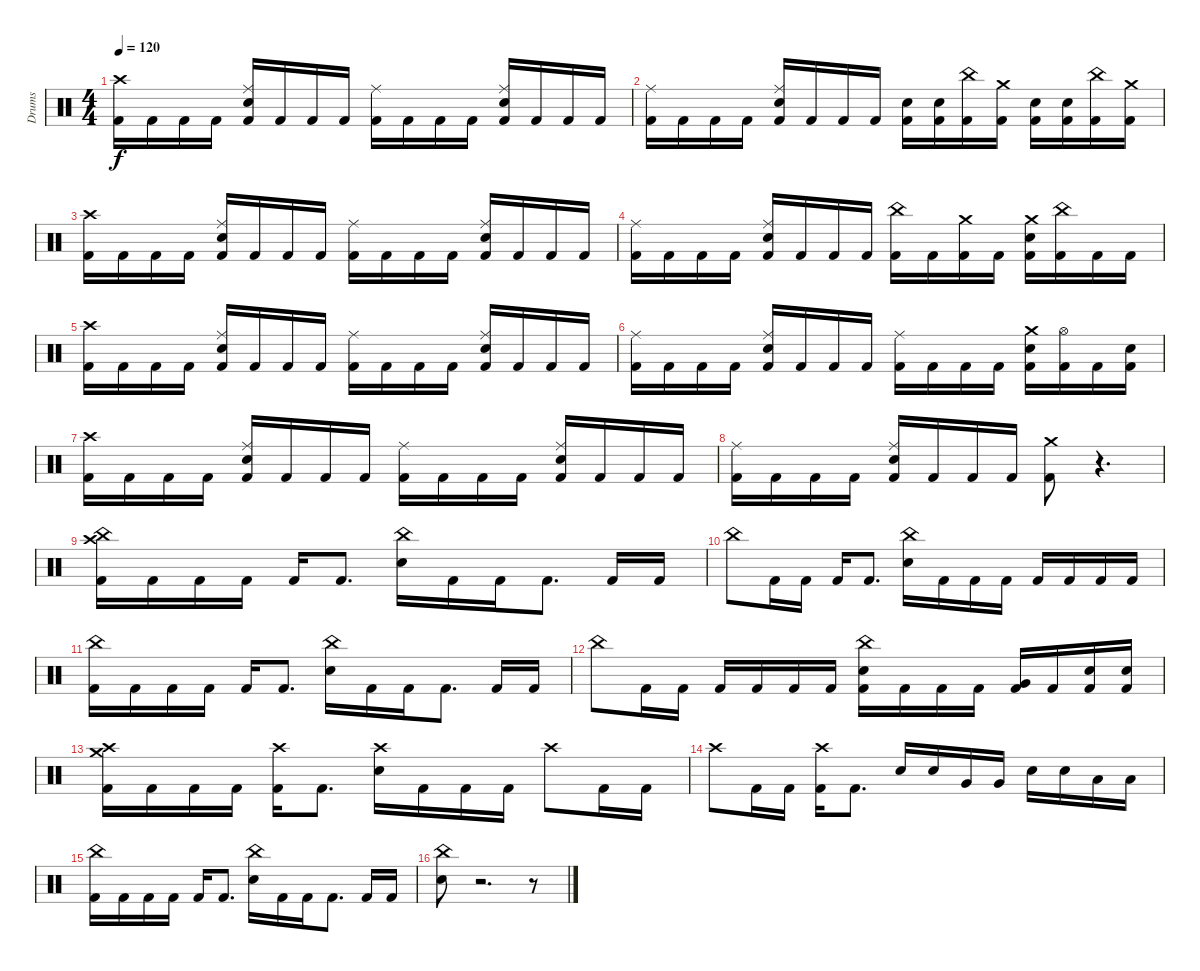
\track ("Drums" "Drums") {instrument percussion}
\staff {score}
\articulation defaults
\ts (4 4)
\tempo 120
\clef neutral
\ks c
("Crash high (hit)" "Kick (hit) 2").16{dy f} "Kick (hit) 2".16 "Kick (hit) 2".16 "Kick (hit) 2".16 ("Ride (middle)" "Electric Snare (hit)" "Kick (hit) 2").16 "Kick (hit) 2".16 "Kick (hit) 2".16 "Kick (hit) 2".16 ("Ride (middle)" "Kick (hit) 2").16 "Kick (hit) 2".16 "Kick (hit) 2".16 "Kick (hit) 2".16 ("Ride (middle)" "Electric Snare (hit)" "Kick (hit) 2").16 "Kick (hit) 2".16 "Kick (hit) 2".16 "Kick (hit) 2".16 |
("Ride (middle)" "Kick (hit) 2").16 "Kick (hit) 2".16 "Kick (hit) 2".16 "Kick (hit) 2".16 ("Ride (middle)" "Electric Snare (hit)" "Kick (hit) 2").16 "Kick (hit) 2".16 "Kick (hit) 2".16 "Kick (hit) 2".16 ("Electric Snare (hit)" "Kick (hit) 2").16 ("Electric Snare (hit)" "Kick (hit) 2").16 ("China (hit)" "Kick (hit) 2").16 ("Crash medium (hit)" "Kick (hit) 2").16 ("Electric Snare (hit)" "Kick (hit) 2").16 ("Electric Snare (hit)" "Kick (hit) 2").16 ("China (hit)" "Kick (hit) 2").16 ("Crash medium (hit)" "Kick (hit) 2").16 |
("Crash high (hit)" "Kick (hit) 2").16 "Kick (hit) 2".16 "Kick (hit) 2".16 "Kick (hit) 2".16 ("Ride (middle)" "Electric Snare (hit)" "Kick (hit) 2").16 "Kick (hit) 2".16 "Kick (hit) 2".16 "Kick (hit) 2".16 ("Ride (middle)" "Kick (hit) 2").16 "Kick (hit) 2".16 "Kick (hit) 2".16 "Kick (hit) 2".16 ("Ride (middle)" "Electric Snare (hit)" "Kick (hit) 2").16 "Kick (hit) 2".16 "Kick (hit) 2".16 "Kick (hit) 2".16 |
("Ride (middle)" "Kick (hit) 2").16 "Kick (hit) 2".16 "Kick (hit) 2".16 "Kick (hit) 2".16 ("Ride (middle)" "Electric Snare (hit)" "Kick (hit) 2").16 "Kick (hit) 2".16 "Kick (hit) 2".16 "Kick (hit) 2".16 ("China (hit)" "Kick (hit) 2").16 "Kick (hit) 2".16 ("Crash medium (hit)" "Kick (hit) 2").16 "Kick (hit) 2".16 ("Crash medium (hit)" "Electric Snare (hit)" "Kick (hit) 2").16 ("China (hit)" "Kick (hit) 2").16 "Kick (hit) 2".16 "Kick (hit) 2".16 |
("Crash high (hit)" "Kick (hit) 2").16 "Kick (hit) 2".16 "Kick (hit) 2".16 "Kick (hit) 2".16 ("Ride (middle)" "Electric Snare (hit)" "Kick (hit) 2").16 "Kick (hit) 2".16 "Kick (hit) 2".16 "Kick (hit) 2".16 ("Ride (middle)" "Kick (hit) 2").16 "Kick (hit) 2".16 "Kick (hit) 2".16 "Kick (hit) 2".16 ("Ride (middle)" "Electric Snare (hit)" "Kick (hit) 2").16 "Kick (hit) 2".16 "Kick (hit) 2".16 "Kick (hit) 2".16 |
("Ride (middle)" "Kick (hit) 2").16 "Kick (hit) 2".16 "Kick (hit) 2".16 "Kick (hit) 2".16 ("Ride (middle)" "Electric Snare (hit)" "Kick (hit) 2").16 "Kick (hit) 2".16 "Kick (hit) 2".16 "Kick (hit) 2".16 ("Ride (middle)" "Kick (hit) 2").16 "Kick (hit) 2".16 "Kick (hit) 2".16 "Kick (hit) 2".16 ("Crash medium (hit)" "Electric Snare (hit)" "Kick (hit) 2").16 ("Hi-Hat (open)" "Kick (hit) 2").16 "Kick (hit) 2".16 ("Electric Snare (hit)" "Kick (hit) 2").16 |
("Crash high (hit)" "Kick (hit) 2").16 "Kick (hit) 2".16 "Kick (hit) 2".16 "Kick (hit) 2".16 ("Ride (middle)" "Electric Snare (hit)" "Kick (hit) 2").16 "Kick (hit) 2".16 "Kick (hit) 2".16 "Kick (hit) 2".16 ("Ride (middle)" "Kick (hit) 2").16 "Kick (hit) 2".16 "Kick (hit) 2".16 "Kick (hit) 2".16 ("Ride (middle)" "Electric Snare (hit)" "Kick (hit) 2").16 "Kick (hit) 2".16 "Kick (hit) 2".16 "Kick (hit) 2".16 |
("Ride (middle)" "Kick (hit) 2").16 "Kick (hit) 2".16 "Kick (hit) 2".16 "Kick (hit) 2".16 ("Ride (middle)" "Electric Snare (hit)" "Kick (hit) 2").16 "Kick (hit) 2".16 "Kick (hit) 2".16 "Kick (hit) 2".16 ("Crash medium (hit)" "Kick (hit) 2").8 r.4{d volume 0} |
("China (hit)" "Crash high (hit)" "Kick (hit) 2").16{volume 16} "Kick (hit) 2".16 "Kick (hit) 2".16 "Kick (hit) 2".16 "Kick (hit) 2".16 "Kick (hit) 2".8{d} ("China (hit)" "Electric Snare (hit)").16 "Kick (hit) 2".16 "Kick (hit) 2".16 "Kick (hit) 2".8{d} "Kick (hit) 2".16 "Kick (hit) 2".16 |
"China (hit)".8 "Kick (hit) 2".16 "Kick (hit) 2".16 "Kick (hit) 2".16 "Kick (hit) 2".8{d} ("China (hit)" "Electric Snare (hit)").16 "Kick (hit) 2".16 "Kick (hit) 2".16 "Kick (hit) 2".16 "Kick (hit) 2".16 "Kick (hit) 2".16 "Kick (hit) 2".16 "Kick (hit) 2".16 |
("China (hit)" "Kick (hit) 2").16 "Kick (hit) 2".16 "Kick (hit) 2".16 "Kick (hit) 2".16 "Kick (hit) 2".16 "Kick (hit) 2".8{d} ("China (hit)" "Electric Snare (hit)").16 "Kick (hit) 2".16 "Kick (hit) 2".16 "Kick (hit) 2".8{d} "Kick (hit) 2".16 "Kick (hit) 2".16 |
"China (hit)".8 "Kick (hit) 2".16 "Kick (hit) 2".16 "Kick (hit) 2".16 "Kick (hit) 2".16 "Kick (hit) 2".16 "Kick (hit) 2".16 ("China (hit)" "Electric Snare (hit)" "Kick (hit) 2").16 "Kick (hit) 2".16 "Kick (hit) 2".16 "Kick (hit) 2".16 ("Very Low Tom (hit)" "Kick (hit) 2").16 "Kick (hit) 2".16 ("Electric Snare (hit)" "Kick (hit) 2").16 ("Electric Snare (hit)" "Kick (hit) 2").16 |
("Crash high (hit)" "Crash medium (hit)" "Kick (hit) 2").16 "Kick (hit) 2".16 "Kick (hit) 2".16 "Kick (hit) 2".16 ("Crash high (hit)" "Kick (hit) 2").16 "Kick (hit) 2".8{d} ("Crash high (hit)" "Electric Snare (hit)").16 "Kick (hit) 2".16 "Kick (hit) 2".16 "Kick (hit) 2".16 "Crash high (hit)".8 "Kick (hit) 2".16 "Kick (hit) 2".16 |
"Crash high (hit)".8 "Kick (hit) 2".16 "Kick (hit) 2".16 ("Crash high (hit)" "Kick (hit) 2").16 "Kick (hit) 2".8{d} "Electric Snare (hit)".16 "Electric Snare (hit)".16 "Very Low Tom (hit)".16 "Very Low Tom (hit)".16 "Electric Snare (hit)".16 "Electric Snare (hit)".16 "Low Floor Tom (hit)".16 "Low Floor Tom (hit)".16 |
("China (hit)" "Kick (hit) 2").16 "Kick (hit) 2".16 "Kick (hit) 2".16 "Kick (hit) 2".16 "Kick (hit) 2".16 "Kick (hit) 2".8{d} ("China (hit)" "Electric Snare (hit)").16 "Kick (hit) 2".16 "Kick (hit) 2".16 "Kick (hit) 2".8{d} "Kick (hit) 2".16 "Kick (hit) 2".16 |
("China (hit)" "Electric Snare (hit)").8 r.2{d volume 0} r.8
